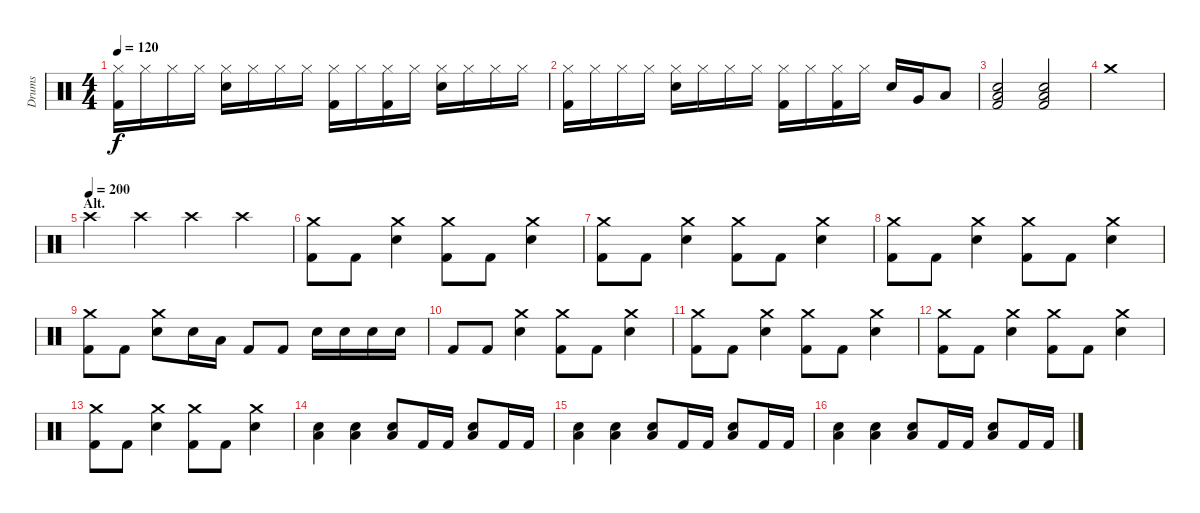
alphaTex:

\track ("Drums" "Drums") {instrument percussion}
\staff {score}
\articulation defaults
\ts (4 4)
\tempo 120
\clef neutral
\ks c
("Hi-Hat (closed)" "Kick (hit) 2").16{dy f} "Hi-Hat (closed)".16 "Hi-Hat (closed)".16 "Hi-Hat (closed)".16 ("Hi-Hat (closed)" "Electric Snare (hit)").16 "Hi-Hat (closed)".16 "Hi-Hat (closed)".16 "Hi-Hat (closed)".16 ("Hi-Hat (closed)" "Kick (hit) 2").16 "Hi-Hat (closed)".16 ("Hi-Hat (closed)" "Kick (hit) 2").16 "Hi-Hat (closed)".16 ("Hi-Hat (closed)" "Electric Snare (hit)").16 "Hi-Hat (closed)".16 "Hi-Hat (closed)".16 "Hi-Hat (closed)".16 |
("Hi-Hat (closed)" "Kick (hit) 2").16 "Hi-Hat (closed)".16 "Hi-Hat (closed)".16 "Hi-Hat (closed)".16 ("Hi-Hat (closed)" "Electric Snare (hit)").16 "Hi-Hat (closed)".16 "Hi-Hat (closed)".16 "Hi-Hat (closed)".16 ("Hi-Hat (closed)" "Kick (hit) 2").16 "Hi-Hat (closed)".16 ("Hi-Hat (closed)" "Kick (hit) 2").16 "Hi-Hat (closed)".16 "Electric Snare (hit)".16 "Very Low Tom (hit)".16 "Low Floor Tom (hit)".8 |
("Low Floor Tom (hit)" "Electric Snare (hit)" "Kick (hit) 2").2 ("Low Floor Tom (hit)" "Electric Snare (hit)" "Kick (hit) 2").2 |
"Crash medium (hit)".1 |
\section ("" "Alt.")
\tempo (200)
"Crash high (hit)".4 "Crash high (hit)".4 "Crash high (hit)".4 "Crash high (hit)".4 |
("Crash medium (hit)" "Kick (hit) 2").8 "Kick (hit) 2".8 ("Crash medium (hit)" "Electric Snare (hit)").4 ("Crash medium (hit)" "Kick (hit) 2").8 "Kick (hit) 2".8 ("Crash medium (hit)" "Electric Snare (hit)").4 |
("Crash medium (hit)" "Kick (hit) 2").8 "Kick (hit) 2".8 ("Crash medium (hit)" "Electric Snare (hit)").4 ("Crash medium (hit)" "Kick (hit) 2").8 "Kick (hit) 2".8 ("Crash medium (hit)" "Electric Snare (hit)").4 |
("Crash medium (hit)" "Kick (hit) 2").8 "Kick (hit) 2".8 ("Crash medium (hit)" "Electric Snare (hit)").4 ("Crash medium (hit)" "Kick (hit) 2").8 "Kick (hit) 2".8 ("Crash medium (hit)" "Electric Snare (hit)").4 |
("Crash medium (hit)" "Kick (hit) 2").8 "Kick (hit) 2".8 ("Crash medium (hit)" "Electric Snare (hit)").8 "Electric Snare (hit)".16 "Low Floor Tom (hit)".16 "Kick (hit) 2".8 "Kick (hit) 2".8 "Electric Snare (hit)".16 "Electric Snare (hit)".16 "Electric Snare (hit)".16 "Electric Snare (hit)".16 |
"Kick (hit) 2".8 "Kick (hit) 2".8 ("Crash medium (hit)" "Electric Snare (hit)").4 ("Crash medium (hit)" "Kick (hit) 2").8 "Kick (hit) 2".8 ("Crash medium (hit)" "Electric Snare (hit)").4 |
("Crash medium (hit)" "Kick (hit) 2").8 "Kick (hit) 2".8 ("Crash medium (hit)" "Electric Snare (hit)").4 ("Crash medium (hit)" "Kick (hit) 2").8 "Kick (hit) 2".8 ("Crash medium (hit)" "Electric Snare (hit)").4 |
("Crash medium (hit)" "Kick (hit) 2").8 "Kick (hit) 2".8 ("Crash medium (hit)" "Electric Snare (hit)").4 ("Crash medium (hit)" "Kick (hit) 2").8 "Kick (hit) 2".8 ("Crash medium (hit)" "Electric Snare (hit)").4 |
("Crash medium (hit)" "Kick (hit) 2").8 "Kick (hit) 2".8 ("Crash medium (hit)" "Electric Snare (hit)").4 ("Crash medium (hit)" "Kick (hit) 2").8 "Kick (hit) 2".8 ("Crash medium (hit)" "Electric Snare (hit)").4 |
("Low Floor Tom (hit)" "Electric Snare (hit)").4 ("Low Floor Tom (hit)" "Electric Snare (hit)").4 ("Low Floor Tom (hit)" "Electric Snare (hit)").8 "Kick (hit) 2".16 "Kick (hit) 2".16 ("Low Floor Tom (hit)" "Electric Snare (hit)").8 "Kick (hit) 2".16 "Kick (hit) 2".16 |
("Low Floor Tom (hit)" "Electric Snare (hit)").4 ("Low Floor Tom (hit)" "Electric Snare (hit)").4 ("Low Floor Tom (hit)" "Electric Snare (hit)").8 "Kick (hit) 2".16 "Kick (hit) 2".16 ("Low Floor Tom (hit)" "Electric Snare (hit)").8 "Kick (hit) 2".16 "Kick (hit) 2".16 |
("Low Floor Tom (hit)" "Electric Snare (hit)").4 ("Low Floor Tom (hit)" "Electric Snare (hit)").4 ("Low Floor Tom (hit)" "Electric Snare (hit)").8 "Kick (hit) 2".16 "Kick (hit) 2".16 ("Low Floor Tom (hit)" "Electric Snare (hit)").8 "Kick (hit) 2".16 "Kick (hit) 2".16
